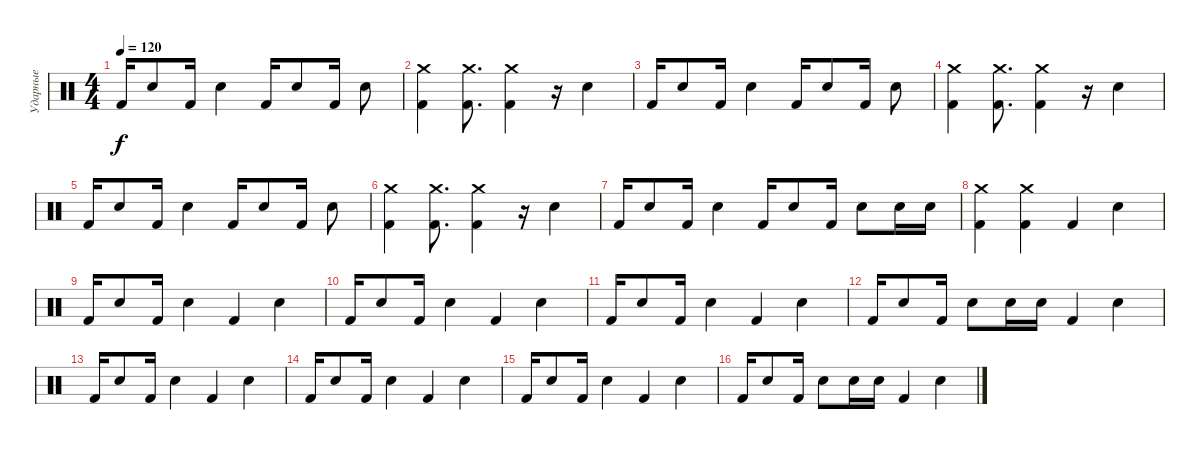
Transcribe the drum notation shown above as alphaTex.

\track ("Ударные" "Ударные") {instrument percussion}
\staff {score}
\articulation defaults
\ts (4 4)
\tempo 120
\clef neutral
\ks c "Kick (hit) 2".16{dy f} "Snare (hit) 2".8 "Kick (hit) 2".16 "Snare (hit) 2".4 "Kick (hit) 2".16 "Snare (hit) 2".8 "Kick (hit) 2".16 "Snare (hit) 2".8
|
("Crash medium (hit)" "Kick (hit) 2").4 ("Crash medium (hit)" "Kick (hit) 2").8{d} ("Crash medium (hit)" "Kick (hit) 2").4 r.16 "Snare (hit) 2".4 |
"Kick (hit) 2".16 "Snare (hit) 2".8 "Kick (hit) 2".16 "Snare (hit) 2".4 "Kick (hit) 2".16 "Snare (hit) 2".8 "Kick (hit) 2".16 "Snare (hit) 2".8 |
("Crash medium (hit)" "Kick (hit) 2").4 ("Crash medium (hit)" "Kick (hit) 2").8{d} ("Crash medium (hit)" "Kick (hit) 2").4 r.16 "Snare (hit) 2".4 |
"Kick (hit) 2".16 "Snare (hit) 2".8 "Kick (hit) 2".16 "Snare (hit) 2".4 "Kick (hit) 2".16 "Snare (hit) 2".8 "Kick (hit) 2".16 "Snare (hit) 2".8 |
("Crash medium (hit)" "Kick (hit) 2").4 ("Crash medium (hit)" "Kick (hit) 2").8{d} ("Crash medium (hit)" "Kick (hit) 2").4 r.16 "Snare (hit) 2".4 |
"Kick (hit) 2".16 "Snare (hit) 2".8 "Kick (hit) 2".16 "Snare (hit) 2".4 "Kick (hit) 2".16 "Snare (hit) 2".8 "Kick (hit) 2".16 "Snare (hit) 2".8 "Snare (hit) 2".16 "Snare (hit) 2".16 |
("Crash medium (hit)" "Kick (hit) 2").4 ("Crash medium (hit)" "Kick (hit) 2").4 "Kick (hit) 2".4 "Snare (hit) 2".4 |
"Kick (hit) 2".16 "Snare (hit) 2".8 "Kick (hit) 2".16 "Snare (hit) 2".4 "Kick (hit) 2".4 "Snare (hit) 2".4 |
"Kick (hit) 2".16 "Snare (hit) 2".8 "Kick (hit) 2".16 "Snare (hit) 2".4 "Kick (hit) 2".4 "Snare (hit) 2".4 |
"Kick (hit) 2".16 "Snare (hit) 2".8 "Kick (hit) 2".16 "Snare (hit) 2".4 "Kick (hit) 2".4 "Snare (hit) 2".4 |
"Kick (hit) 2".16 "Snare (hit) 2".8 "Kick (hit) 2".16 "Snare (hit) 2".8 "Snare (hit) 2".16 "Snare (hit) 2".16 "Kick (hit) 2".4 "Snare (hit) 2".4 |
"Kick (hit) 2".16 "Snare (hit) 2".8 "Kick (hit) 2".16 "Snare (hit) 2".4 "Kick (hit) 2".4 "Snare (hit) 2".4 |
"Kick (hit) 2".16 "Snare (hit) 2".8 "Kick (hit) 2".16 "Snare (hit) 2".4 "Kick (hit) 2".4 "Snare (hit) 2".4 |
"Kick (hit) 2".16 "Snare (hit) 2".8 "Kick (hit) 2".16 "Snare (hit) 2".4 "Kick (hit) 2".4 "Snare (hit) 2".4 |
"Kick (hit) 2".16 "Snare (hit) 2".8 "Kick (hit) 2".16 "Snare (hit) 2".8 "Snare (hit) 2".16 "Snare (hit) 2".16 "Kick (hit) 2".4 "Snare (hit) 2".4
